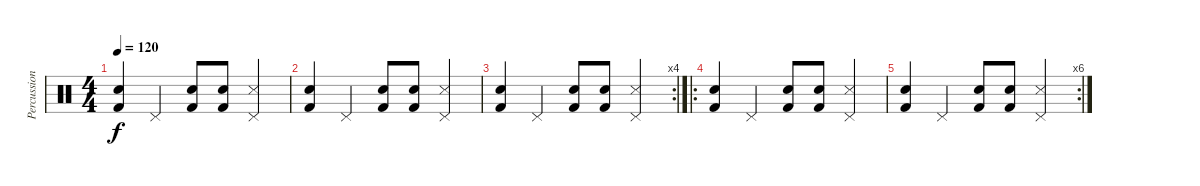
\track ("Percussion" "Percussion") {instrument percussion}
\staff {score}
\articulation defaults
\ts (4 4)
\tempo 120
\clef neutral
\ks c
("Kick (hit) 2" "Snare (hit) 2").4{dy f} "Pedal Hi-Hat (hit)".4 ("Kick (hit) 2" "Snare (hit) 2").8 ("Kick (hit) 2" "Snare (hit) 2").8 ("Pedal Hi-Hat (hit)" "Snare (side stick) 3").4 |
("Kick (hit) 2" "Snare (hit) 2").4 "Pedal Hi-Hat (hit)".4 ("Kick (hit) 2" "Snare (hit) 2").8 ("Kick (hit) 2" "Snare (hit) 2").8 ("Pedal Hi-Hat (hit)" "Snare (side stick) 3").4 |
\rc 4
("Kick (hit) 2" "Snare (hit) 2").4 "Pedal Hi-Hat (hit)".4 ("Kick (hit) 2" "Snare (hit) 2").8 ("Kick (hit) 2" "Snare (hit) 2").8 ("Pedal Hi-Hat (hit)" "Snare (side stick) 3").4 |
\ro
("Kick (hit) 2" "Snare (hit) 2").4 "Pedal Hi-Hat (hit)".4 ("Kick (hit) 2" "Snare (hit) 2").8 ("Kick (hit) 2" "Snare (hit) 2").8 ("Pedal Hi-Hat (hit)" "Snare (side stick) 3").4 |
\rc 6
("Kick (hit) 2" "Snare (hit) 2").4 "Pedal Hi-Hat (hit)".4 ("Kick (hit) 2" "Snare (hit) 2").8 ("Kick (hit) 2" "Snare (hit) 2").8 ("Pedal Hi-Hat (hit)" "Snare (side stick) 3").4
